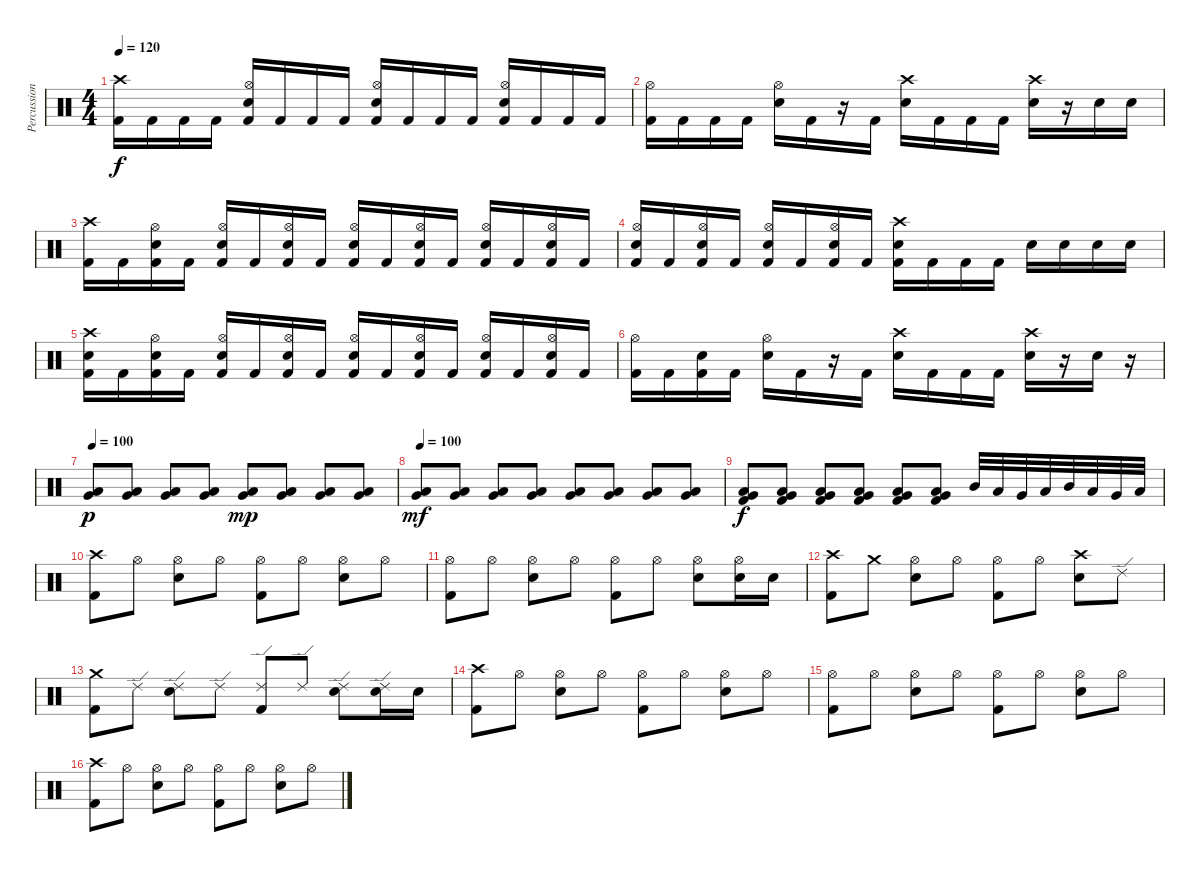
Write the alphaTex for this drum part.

\track ("Percussion" "Percussion") {instrument percussion}
\staff {score}
\articulation defaults
\ts (4 4)
\tempo 120
\clef neutral
\ks c
("Crash high (hit)" "Kick (hit) 2").16{dy f} "Kick (hit) 2".16 "Kick (hit) 2".16 "Kick (hit) 2".16 ("Hi-Hat (open)" "Snare (hit) 2" "Kick (hit) 2").16 "Kick (hit) 2".16 "Kick (hit) 2".16 "Kick (hit) 2".16 ("Hi-Hat (open)" "Snare (hit) 2" "Kick (hit) 2").16 "Kick (hit) 2".16 "Kick (hit) 2".16 "Kick (hit) 2".16 ("Hi-Hat (open)" "Snare (hit) 2" "Kick (hit) 2").16 "Kick (hit) 2".16 "Kick (hit) 2".16 "Kick (hit) 2".16 |
("Hi-Hat (open)" "Kick (hit) 2").16 "Kick (hit) 2".16 "Kick (hit) 2".16 "Kick (hit) 2".16 ("Hi-Hat (open)" "Snare (hit) 2").16 "Kick (hit) 2".16 r.16 "Kick (hit) 2".16 ("Crash high (hit)" "Snare (hit) 2").16 "Kick (hit) 2".16 "Kick (hit) 2".16 "Kick (hit) 2".16 ("Crash high (hit)" "Snare (hit) 2").16 r.16 "Snare (hit) 2".16 "Snare (hit) 2".16 |
("Crash high (hit)" "Kick (hit) 2").16 "Kick (hit) 2".16 ("Hi-Hat (open)" "Snare (hit) 2" "Kick (hit) 2").16 "Kick (hit) 2".16 ("Hi-Hat (open)" "Snare (hit) 2" "Kick (hit) 2").16 "Kick (hit) 2".16 ("Hi-Hat (open)" "Snare (hit) 2" "Kick (hit) 2").16 "Kick (hit) 2".16 ("Hi-Hat (open)" "Snare (hit) 2" "Kick (hit) 2").16 "Kick (hit) 2".16 ("Hi-Hat (open)" "Snare (hit) 2" "Kick (hit) 2").16 "Kick (hit) 2".16 ("Hi-Hat (open)" "Snare (hit) 2" "Kick (hit) 2").16 "Kick (hit) 2".16 ("Hi-Hat (open)" "Snare (hit) 2" "Kick (hit) 2").16 "Kick (hit) 2".16 |
("Hi-Hat (open)" "Snare (hit) 2" "Kick (hit) 2").16 "Kick (hit) 2".16 ("Hi-Hat (open)" "Snare (hit) 2" "Kick (hit) 2").16 "Kick (hit) 2".16 ("Hi-Hat (open)" "Snare (hit) 2" "Kick (hit) 2").16 "Kick (hit) 2".16 ("Hi-Hat (open)" "Snare (hit) 2" "Kick (hit) 2").16 "Kick (hit) 2".16 ("Crash high (hit)" "Snare (hit) 2" "Kick (hit) 2").16 "Kick (hit) 2".16 "Kick (hit) 2".16 "Kick (hit) 2".16 "Snare (hit) 2".16 "Snare (hit) 2".16 "Snare (hit) 2".16 "Snare (hit) 2".16 |
("Crash high (hit)" "Snare (hit) 2" "Kick (hit) 2").16 "Kick (hit) 2".16 ("Hi-Hat (open)" "Snare (hit) 2" "Kick (hit) 2").16 "Kick (hit) 2".16 ("Hi-Hat (open)" "Snare (hit) 2" "Kick (hit) 2").16 "Kick (hit) 2".16 ("Hi-Hat (open)" "Snare (hit) 2" "Kick (hit) 2").16 "Kick (hit) 2".16 ("Hi-Hat (open)" "Snare (hit) 2" "Kick (hit) 2").16 "Kick (hit) 2".16 ("Hi-Hat (open)" "Snare (hit) 2" "Kick (hit) 2").16 "Kick (hit) 2".16 ("Hi-Hat (open)" "Snare (hit) 2" "Kick (hit) 2").16 "Kick (hit) 2".16 ("Hi-Hat (open)" "Snare (hit) 2" "Kick (hit) 2").16 "Kick (hit) 2".16 |
("Hi-Hat (open)" "Kick (hit) 2").16 "Kick (hit) 2".16 ("Snare (hit) 2" "Kick (hit) 2").16 "Kick (hit) 2".16 ("Hi-Hat (open)" "Snare (hit) 2").16 "Kick (hit) 2".16 r.16 "Kick (hit) 2".16 ("Crash high (hit)" "Snare (hit) 2").16 "Kick (hit) 2".16 "Kick (hit) 2".16 "Kick (hit) 2".16 ("Crash high (hit)" "Snare (hit) 2").16 r.16 "Snare (hit) 2".16 r.16 |
\tempo 100
("Low Floor Tom (hit)" "Very Low Tom (hit)").8{dy p} ("Low Floor Tom (hit)" "Very Low Tom (hit)").8 ("Low Floor Tom (hit)" "Very Low Tom (hit)").8 ("Low Floor Tom (hit)" "Very Low Tom (hit)").8 ("Low Floor Tom (hit)" "Very Low Tom (hit)").8{dy mp} ("Low Floor Tom (hit)" "Very Low Tom (hit)").8 ("Low Floor Tom (hit)" "Very Low Tom (hit)").8 ("Low Floor Tom (hit)" "Very Low Tom (hit)").8 |
\tempo 100
("Low Floor Tom (hit)" "Very Low Tom (hit)").8{dy mf} ("Low Floor Tom (hit)" "Very Low Tom (hit)").8 ("Low Floor Tom (hit)" "Very Low Tom (hit)").8 ("Low Floor Tom (hit)" "Very Low Tom (hit)").8 ("Low Floor Tom (hit)" "Very Low Tom (hit)").8 ("Low Floor Tom (hit)" "Very Low Tom (hit)").8 ("Low Floor Tom (hit)" "Very Low Tom (hit)").8 ("Low Floor Tom (hit)" "Very Low Tom (hit)").8 |
("Low Floor Tom (hit)" "Very Low Tom (hit)" "Kick (hit) 2").8{dy f} ("Low Floor Tom (hit)" "Very Low Tom (hit)" "Kick (hit) 2").8 ("Low Floor Tom (hit)" "Very Low Tom (hit)" "Kick (hit) 2").8 ("Low Floor Tom (hit)" "Very Low Tom (hit)" "Kick (hit) 2").8 ("Low Floor Tom (hit)" "Very Low Tom (hit)" "Kick (hit) 2").8 ("Low Floor Tom (hit)" "Very Low Tom (hit)" "Kick (hit) 2").8 "Mid Tom (hit)".32 "Low Tom (hit)".32 "Very Low Tom (hit)".32 "Low Floor Tom (hit)".32 "Mid Tom (hit)".32 "Low Tom (hit)".32 "Very Low Tom (hit)".32 "Low Floor Tom (hit)".32 |
("Crash high (hit)" "Kick (hit) 2").8 "Hi-Hat (open)".8 ("Hi-Hat (open)" "Snare (hit) 2").8 "Hi-Hat (open)".8 ("Hi-Hat (open)" "Kick (hit) 2").8 "Hi-Hat (open)".8 ("Hi-Hat (open)" "Snare (hit) 2").8 "Hi-Hat (open)".8 |
("Hi-Hat (open)" "Kick (hit) 2").8 "Hi-Hat (open)".8 ("Hi-Hat (open)" "Snare (hit) 2").8 "Hi-Hat (open)".8 ("Hi-Hat (open)" "Kick (hit) 2").8 "Hi-Hat (open)".8 ("Hi-Hat (open)" "Snare (hit) 2").8 ("Hi-Hat (open)" "Snare (hit) 2").16 "Snare (hit) 2".16 |
("Crash high (hit)" "Kick (hit) 2").8 "Crash medium (hit)".8 ("Hi-Hat (open)" "Snare (hit) 2").8 "Hi-Hat (open)".8 ("Hi-Hat (open)" "Kick (hit) 2").8 "Hi-Hat (open)".8 ("Crash high (hit)" "Snare (hit) 2").8 "Ride (edge) 2".8 |
("Crash medium (hit)" "Kick (hit) 2").8 "Ride (edge) 2".8 ("Ride (edge) 2" "Snare (hit) 2").8 "Ride (edge) 2".8 ("Ride (edge) 2" "Kick (hit) 2").8 "Ride (edge) 2".8 ("Ride (edge) 2" "Snare (hit) 2").8 ("Ride (edge) 2" "Snare (hit) 2").16 "Snare (hit) 2".16 |
("Crash high (hit)" "Kick (hit) 2").8 "Hi-Hat (open)".8 ("Hi-Hat (open)" "Snare (hit) 2").8 "Hi-Hat (open)".8 ("Hi-Hat (open)" "Kick (hit) 2").8 "Hi-Hat (open)".8 ("Hi-Hat (open)" "Snare (hit) 2").8 "Hi-Hat (open)".8 |
("Hi-Hat (open)" "Kick (hit) 2").8 "Hi-Hat (open)".8 ("Hi-Hat (open)" "Snare (hit) 2").8 "Hi-Hat (open)".8 ("Hi-Hat (open)" "Kick (hit) 2").8 "Hi-Hat (open)".8 ("Hi-Hat (open)" "Snare (hit) 2").8 "Hi-Hat (open)".8 |
("Crash high (hit)" "Kick (hit) 2").8 "Hi-Hat (open)".8 ("Hi-Hat (open)" "Snare (hit) 2").8 "Hi-Hat (open)".8 ("Hi-Hat (open)" "Kick (hit) 2").8 "Hi-Hat (open)".8 ("Hi-Hat (open)" "Snare (hit) 2").8 "Hi-Hat (open)".8
